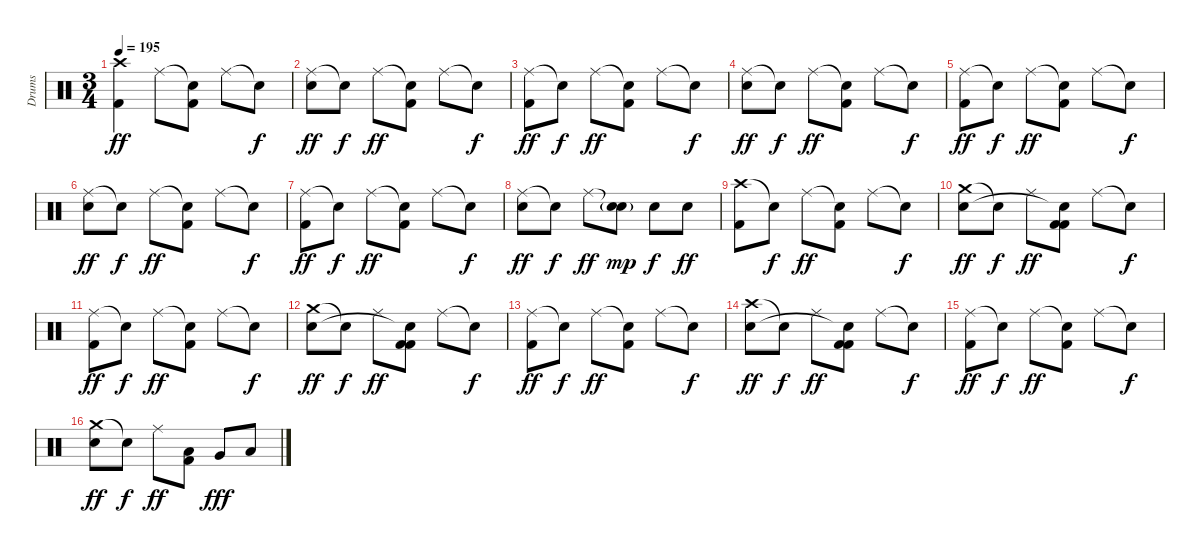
\track ("Drums" "Drums") {instrument percussion}
\staff {score}
\articulation defaults
\ts (3 4)
\tempo 195
\clef neutral
\ks c
("Crash high (hit)" "Kick (hit) 2").4{dy ff} "Ride (middle)".8 ("Snare (hit)"{t} "Kick (hit) 2").8 "Ride (middle)".8 "Snare (hit)"{t}.8{dy f} |
("Ride (middle)" "Electric Snare (hit)").8{dy ff} "Snare (hit)"{t}.8{dy f} "Ride (middle)".8{dy ff} ("Snare (hit)"{t} "Kick (hit) 2").8 "Ride (middle)".8 "Snare (hit)"{t}.8{dy f} |
("Ride (middle)" "Kick (hit) 2").8{dy ff} "Snare (hit)"{t}.8{dy f} "Ride (middle)".8{dy ff} ("Snare (hit)"{t} "Kick (hit) 2").8 "Ride (middle)".8 "Snare (hit)"{t}.8{dy f} |
("Ride (middle)" "Electric Snare (hit)").8{dy ff} "Snare (hit)"{t}.8{dy f} "Ride (middle)".8{dy ff} ("Snare (hit)"{t} "Kick (hit) 2").8 "Ride (middle)".8 "Snare (hit)"{t}.8{dy f} |
("Ride (middle)" "Kick (hit) 2").8{dy ff} "Snare (hit)"{t}.8{dy f} "Ride (middle)".8{dy ff} ("Snare (hit)"{t} "Kick (hit) 2").8 "Ride (middle)".8 "Snare (hit)"{t}.8{dy f} |
("Ride (middle)" "Electric Snare (hit)").8{dy ff} "Snare (hit)"{t}.8{dy f} "Ride (middle)".8{dy ff} ("Snare (hit)"{t} "Kick (hit) 2").8 "Ride (middle)".8 "Snare (hit)"{t}.8{dy f} |
("Ride (middle)" "Kick (hit) 2").8{dy ff} "Snare (hit)"{t}.8{dy f} "Ride (middle)".8{dy ff} ("Snare (hit)"{t} "Kick (hit) 2").8 "Ride (middle)".8 "Snare (hit)"{t}.8{dy f} |
("Ride (middle)" "Electric Snare (hit)").8{dy ff} "Snare (hit)"{t}.8{dy f} "Ride (middle)".8{dy ff} ("Snare (hit)"{t} "Electric Snare (hit)"{g}).8{dy mp} "Electric Snare (hit)".8{dy f} "Electric Snare (hit)".8{dy ff} |
("Crash high (hit)" "Kick (hit) 2").8 "Snare (hit)"{t}.8{dy f} "Ride (middle)".8{dy ff} ("Snare (hit)"{t} "Kick (hit) 2").8 "Ride (middle)".8 "Snare (hit)"{t}.8{dy f} |
("Crash medium (hit)" "Electric Snare (hit)").8{dy ff} "Snare (hit)"{t}.8{dy f} "Ride (middle)".8{dy ff} ("Kick (hit) 2" "Snare (hit)"{t} "Kick (hit) 2").8 "Ride (middle)".8 "Snare (hit)"{t}.8{dy f} |
("Ride (middle)" "Kick (hit) 2").8{dy ff} "Snare (hit)"{t}.8{dy f} "Ride (middle)".8{dy ff} ("Snare (hit)"{t} "Kick (hit) 2").8 "Ride (middle)".8 "Snare (hit)"{t}.8{dy f} |
("Crash medium (hit)" "Electric Snare (hit)").8{dy ff} "Snare (hit)"{t}.8{dy f} "Ride (middle)".8{dy ff} ("Kick (hit) 2" "Snare (hit)"{t} "Kick (hit) 2").8 "Ride (middle)".8 "Snare (hit)"{t}.8{dy f} |
("Ride (middle)" "Kick (hit) 2").8{dy ff} "Snare (hit)"{t}.8{dy f} "Ride (middle)".8{dy ff} ("Snare (hit)"{t} "Kick (hit) 2").8 "Ride (middle)".8 "Snare (hit)"{t}.8{dy f} |
("Crash high (hit)" "Electric Snare (hit)").8{dy ff} "Snare (hit)"{t}.8{dy f} "Ride (middle)".8{dy ff} ("Kick (hit) 2" "Snare (hit)"{t} "Kick (hit) 2").8 "Ride (middle)".8 "Snare (hit)"{t}.8{dy f} |
("Ride (middle)" "Kick (hit) 2").8{dy ff} "Snare (hit)"{t}.8{dy f} "Ride (middle)".8{dy ff} ("Snare (hit)"{t} "Kick (hit) 2").8 "Ride (middle)".8 "Snare (hit)"{t}.8{dy f} |
("Crash medium (hit)" "Electric Snare (hit)").8{dy ff} "Snare (hit)"{t}.8{dy f} "Ride (middle)".8{dy ff} ("Low Tom (hit)" "Kick (hit) 2").8 "Very Low Tom (hit)".8{dy fff} "Low Floor Tom (hit)".8
